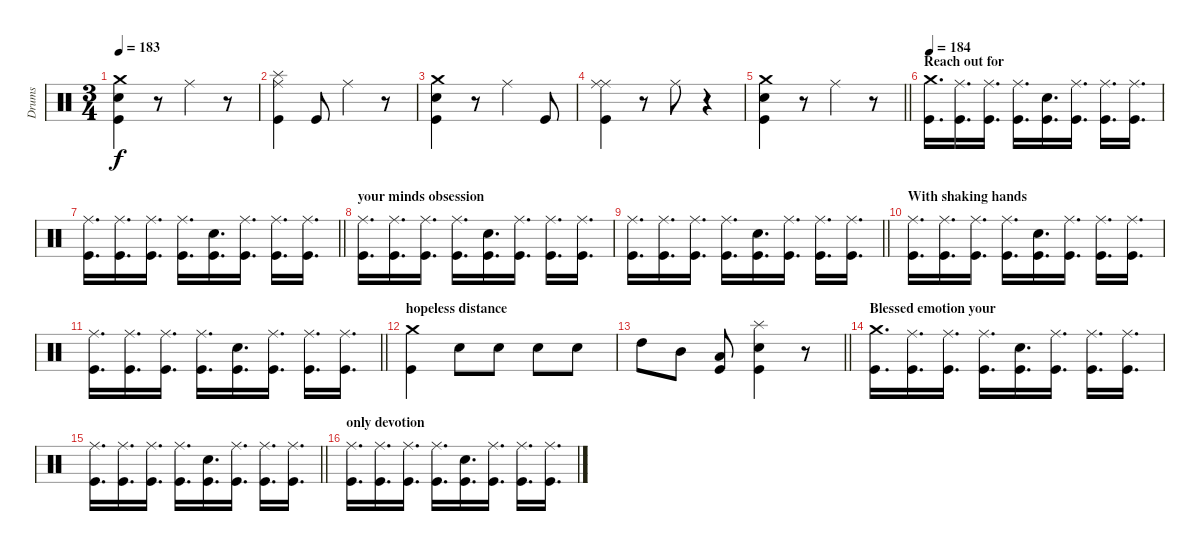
\track ("Drums" "Drums") {instrument percussion}
\staff {score}
\articulation defaults
\ts (3 4)
\tempo 183
\clef neutral
\ks c
("Crash medium (hit)" "Snare (hit) 2" "Kick (hit)").4{dy f} r.8 "Ride (middle)".4 r.8 |
("Splash (hit)" "Ride (middle)" "Kick (hit)").4 "Kick (hit)".8 "Ride (middle)".4 r.8 |
("Crash medium (hit)" "Snare (hit) 2" "Kick (hit)").4 r.8 "Ride (middle)".4 "Kick (hit)".8 |
("Ride (middle)" "Ride (middle)" "Kick (hit)").4 r.8 "Ride (middle)".8 r.4 |
\barLineRight lightlight
("Crash medium (hit)" "Snare (hit) 2" "Kick (hit)").4 r.8 "Ride (middle)".4 r.8 |
\section ("" "Reach out for ")
\tempo 184
("Crash medium (hit)" "Kick (hit)").16{d} ("Ride (middle)" "Kick (hit)").16{d} ("Ride (middle)" "Kick (hit)").16{d} ("Ride (middle)" "Kick (hit)").16{d} ("Snare (hit) 2" "Kick (hit)").16{d} ("Ride (middle)" "Kick (hit)").16{d} ("Ride (middle)" "Kick (hit)").16{d} ("Ride (middle)" "Kick (hit)").16{d} |
\barLineRight lightlight
("Ride (middle)" "Kick (hit)").16{d} ("Ride (middle)" "Kick (hit)").16{d} ("Ride (middle)" "Kick (hit)").16{d} ("Ride (middle)" "Kick (hit)").16{d} ("Snare (hit) 2" "Kick (hit)").16{d} ("Ride (middle)" "Kick (hit)").16{d} ("Ride (middle)" "Kick (hit)").16{d} ("Ride (middle)" "Kick (hit)").16{d} |
\section ("" "your minds obsession")
("Ride (middle)" "Kick (hit)").16{d} ("Ride (middle)" "Kick (hit)").16{d} ("Ride (middle)" "Kick (hit)").16{d} ("Ride (middle)" "Kick (hit)").16{d} ("Snare (hit) 2" "Kick (hit)").16{d} ("Ride (middle)" "Kick (hit)").16{d} ("Ride (middle)" "Kick (hit)").16{d} ("Ride (middle)" "Kick (hit)").16{d} |
\barLineRight lightlight
("Ride (middle)" "Kick (hit)").16{d} ("Ride (middle)" "Kick (hit)").16{d} ("Ride (middle)" "Kick (hit)").16{d} ("Ride (middle)" "Kick (hit)").16{d} ("Snare (hit) 2" "Kick (hit)").16{d} ("Ride (middle)" "Kick (hit)").16{d} ("Ride (middle)" "Kick (hit)").16{d} ("Ride (middle)" "Kick (hit)").16{d} |
\section ("" "With shaking hands ")
("Ride (middle)" "Kick (hit)").16{d} ("Ride (middle)" "Kick (hit)").16{d} ("Ride (middle)" "Kick (hit)").16{d} ("Ride (middle)" "Kick (hit)").16{d} ("Snare (hit) 2" "Kick (hit)").16{d} ("Ride (middle)" "Kick (hit)").16{d} ("Ride (middle)" "Kick (hit)").16{d} ("Ride (middle)" "Kick (hit)").16{d} |
\barLineRight lightlight
("Ride (middle)" "Kick (hit)").16{d} ("Ride (middle)" "Kick (hit)").16{d} ("Ride (middle)" "Kick (hit)").16{d} ("Ride (middle)" "Kick (hit)").16{d} ("Snare (hit) 2" "Kick (hit)").16{d} ("Ride (middle)" "Kick (hit)").16{d} ("Ride (middle)" "Kick (hit)").16{d} ("Ride (middle)" "Kick (hit)").16{d} |
\section ("" "hopeless distance")
("Crash medium (hit)" "Kick (hit)").4 "Snare (hit) 2".8 "Snare (hit) 2".8 "Snare (hit) 2".8 "Snare (hit) 2".8 |
\barLineRight lightlight "High Tom (hit)".8 "Mid Tom (hit)".8
("Low Tom (hit)" "Kick (hit)").8 ("Splash (hit)" "Snare (hit) 2" "Kick (hit)").4 r.8 |
\section ("" "Blessed emotion your ")
("Crash medium (hit)" "Kick (hit)").16{d} ("Ride (middle)" "Kick (hit)").16{d} ("Ride (middle)" "Kick (hit)").16{d} ("Ride (middle)" "Kick (hit)").16{d} ("Snare (hit) 2" "Kick (hit)").16{d} ("Ride (middle)" "Kick (hit)").16{d} ("Ride (middle)" "Kick (hit)").16{d} ("Ride (middle)" "Kick (hit)").16{d} |
\barLineRight lightlight
("Ride (middle)" "Kick (hit)").16{d} ("Ride (middle)" "Kick (hit)").16{d} ("Ride (middle)" "Kick (hit)").16{d} ("Ride (middle)" "Kick (hit)").16{d} ("Snare (hit) 2" "Kick (hit)").16{d} ("Ride (middle)" "Kick (hit)").16{d} ("Ride (middle)" "Kick (hit)").16{d} ("Ride (middle)" "Kick (hit)").16{d} |
\section ("" "only devotion")
("Ride (middle)" "Kick (hit)").16{d} ("Ride (middle)" "Kick (hit)").16{d} ("Ride (middle)" "Kick (hit)").16{d} ("Ride (middle)" "Kick (hit)").16{d} ("Snare (hit) 2" "Kick (hit)").16{d} ("Ride (middle)" "Kick (hit)").16{d} ("Ride (middle)" "Kick (hit)").16{d} ("Ride (middle)" "Kick (hit)").16{d}
